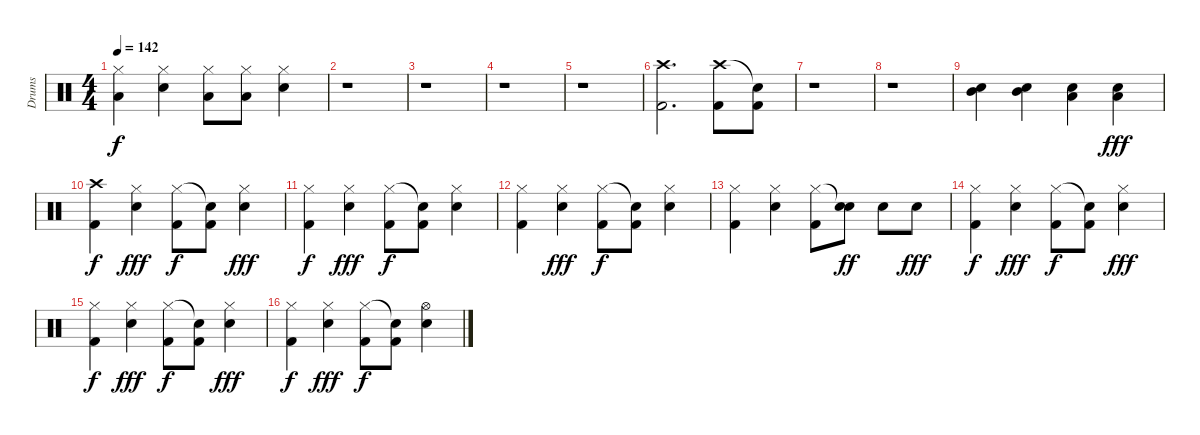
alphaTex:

\track ("Drums" "Drums") {instrument percussion}
\staff {score}
\articulation defaults
\ts (4 4)
\tempo 142
\clef neutral
\ks aminor
("Hi-Hat (closed)" "Low Floor Tom (hit)").4{dy f} ("Hi-Hat (closed)" "Snare (hit) 2").4 ("Hi-Hat (closed)" "Low Floor Tom (hit)").8 ("Hi-Hat (closed)" "Low Floor Tom (hit)").8 ("Hi-Hat (closed)" "Snare (hit) 2").4 |
r.1{volume 10} |
r.1 |
r.1 |
r.1 |
("Crash high (hit)" "Kick (hit) 2").2{d volume 6} ("Crash high (hit)" "Kick (hit) 2").8 ("Snare (hit)"{t} "Kick (hit) 2").8 |
r.1 |
r.1 |
("Mid Tom (hit)" "Snare (hit) 2").4 ("Mid Tom (hit)" "Snare (hit) 2").4 ("Low Floor Tom (hit)" "Snare (hit) 2").4 ("Low Floor Tom (hit)" "Snare (hit) 2").4{dy fff} |
("Crash high (hit)" "Kick (hit) 2").4{dy f volume 3} ("Hi-Hat (closed)" "Snare (hit) 2").4{dy fff} ("Hi-Hat (closed)" "Kick (hit) 2").8{dy f} ("Snare (hit)"{t} "Kick (hit) 2").8 ("Hi-Hat (closed)" "Snare (hit) 2").4{dy fff} |
("Hi-Hat (closed)" "Kick (hit) 2").4{dy f} ("Hi-Hat (closed)" "Snare (hit) 2").4{dy fff} ("Hi-Hat (closed)" "Kick (hit) 2").8{dy f} ("Snare (hit)"{t} "Kick (hit) 2").8 ("Hi-Hat (closed)" "Snare (hit) 2").4 |
("Hi-Hat (closed)" "Kick (hit) 2").4 ("Hi-Hat (closed)" "Snare (hit) 2").4{dy fff} ("Hi-Hat (closed)" "Kick (hit) 2").8{dy f} ("Snare (hit)"{t} "Kick (hit) 2").8 ("Hi-Hat (closed)" "Snare (hit) 2").4 |
("Hi-Hat (closed)" "Kick (hit) 2").4 ("Hi-Hat (closed)" "Snare (hit) 2").4 ("Hi-Hat (closed)" "Kick (hit) 2").8 ("Snare (hit)"{t} "Snare (hit) 2").8{dy ff} "Snare (hit) 2".8 "Snare (hit) 2".8{dy fff} |
("Hi-Hat (closed)" "Kick (hit) 2").4{dy f volume 0} ("Hi-Hat (closed)" "Snare (hit) 2").4{dy fff} ("Hi-Hat (closed)" "Kick (hit) 2").8{dy f} ("Snare (hit)"{t} "Kick (hit) 2").8 ("Hi-Hat (closed)" "Snare (hit) 2").4{dy fff} |
("Hi-Hat (closed)" "Kick (hit) 2").4{dy f} ("Hi-Hat (closed)" "Snare (hit) 2").4{dy fff} ("Hi-Hat (closed)" "Kick (hit) 2").8{dy f} ("Snare (hit)"{t} "Kick (hit) 2").8 ("Hi-Hat (closed)" "Snare (hit) 2").4{dy fff} |
("Hi-Hat (closed)" "Kick (hit) 2").4{dy f} ("Hi-Hat (closed)" "Snare (hit) 2").4{dy fff} ("Hi-Hat (closed)" "Kick (hit) 2").8{dy f} ("Snare (hit)"{t} "Kick (hit) 2").8 ("Hi-Hat (open)" "Snare (hit) 2").4
